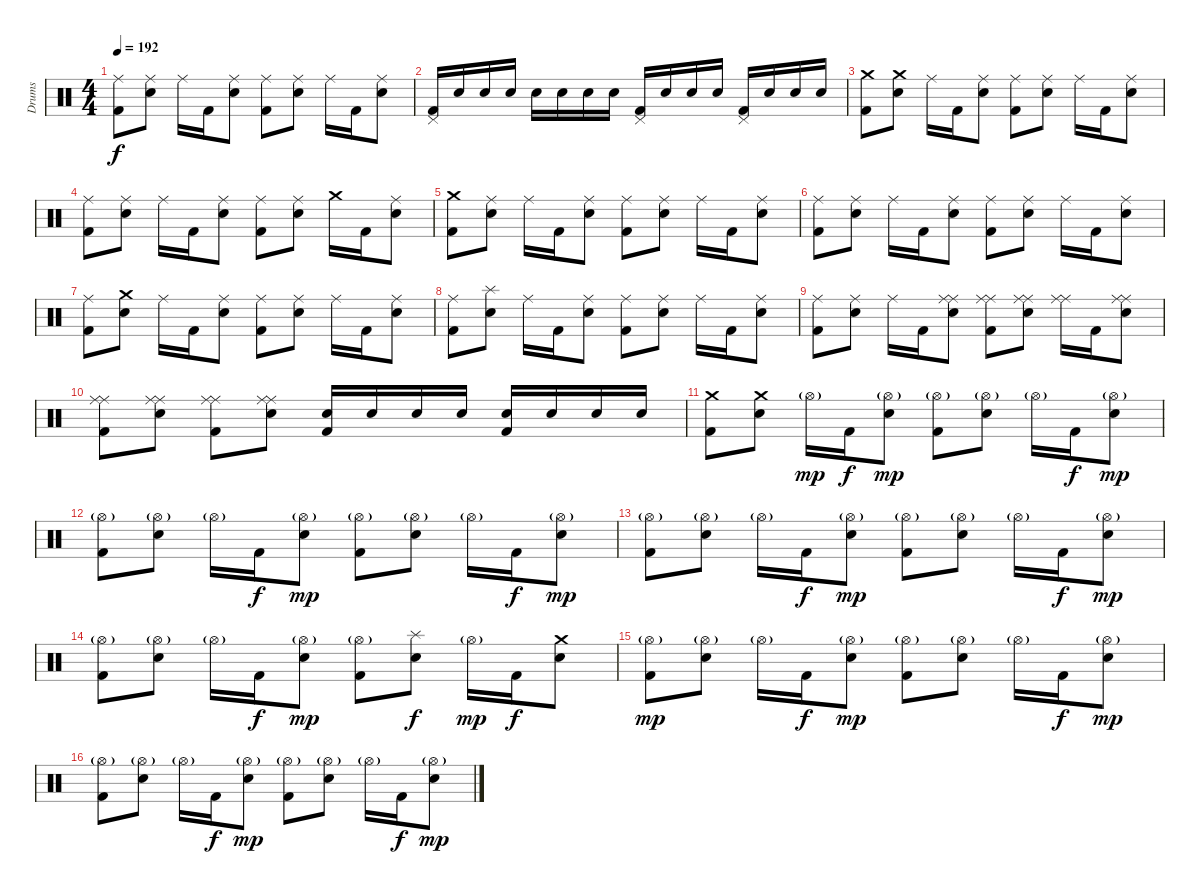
\track ("Drums" "Drums") {instrument percussion}
\staff {score}
\articulation defaults
\ts (4 4)
\tempo 192
\clef neutral
\ks c
("Ride (middle)" "Kick (hit) 2").8{dy f} ("Ride (middle)" "Electric Snare (hit)").8 "Ride (middle)".16 "Kick (hit) 2".16 ("Ride (middle)" "Electric Snare (hit)").8 ("Ride (middle)" "Kick (hit) 2").8 ("Ride (middle)" "Electric Snare (hit)").8 "Ride (middle)".16 "Kick (hit) 2".16 ("Ride (middle)" "Electric Snare (hit)").8 |
("Pedal Hi-Hat (hit)" "Kick (hit) 2").16 "Electric Snare (hit)".16 "Electric Snare (hit)".16 "Electric Snare (hit)".16 "Electric Snare (hit)".16 "Electric Snare (hit)".16 "Electric Snare (hit)".16 "Electric Snare (hit)".16 ("Pedal Hi-Hat (hit)" "Kick (hit) 2").16 "Electric Snare (hit)".16 "Electric Snare (hit)".16 "Electric Snare (hit)".16 ("Pedal Hi-Hat (hit)" "Kick (hit) 2").16 "Electric Snare (hit)".16 "Electric Snare (hit)".16 "Electric Snare (hit)".16 |
("Crash medium (hit)" "Kick (hit) 2").8 ("Crash medium (hit)" "Electric Snare (hit)").8 "Ride (middle)".16 "Kick (hit) 2".16 ("Ride (middle)" "Electric Snare (hit)").8 ("Ride (middle)" "Kick (hit) 2").8 ("Ride (middle)" "Electric Snare (hit)").8 "Ride (middle)".16 "Kick (hit) 2".16 ("Ride (middle)" "Electric Snare (hit)").8 |
("Ride (middle)" "Kick (hit) 2").8 ("Ride (middle)" "Electric Snare (hit)").8 "Ride (middle)".16 "Kick (hit) 2".16 ("Ride (middle)" "Electric Snare (hit)").8 ("Ride (middle)" "Kick (hit) 2").8 ("Ride (middle)" "Electric Snare (hit)").8 "Crash medium (hit)".16 "Kick (hit) 2".16 ("Ride (middle)" "Electric Snare (hit)").8 |
("Crash medium (hit)" "Kick (hit) 2").8 ("Ride (middle)" "Electric Snare (hit)").8 "Ride (middle)".16 "Kick (hit) 2".16 ("Ride (middle)" "Electric Snare (hit)").8 ("Ride (middle)" "Kick (hit) 2").8 ("Ride (middle)" "Electric Snare (hit)").8 "Ride (middle)".16 "Kick (hit) 2".16 ("Ride (middle)" "Electric Snare (hit)").8 |
("Ride (middle)" "Kick (hit) 2").8 ("Ride (middle)" "Electric Snare (hit)").8 "Ride (middle)".16 "Kick (hit) 2".16 ("Ride (middle)" "Electric Snare (hit)").8 ("Ride (middle)" "Kick (hit) 2").8 ("Ride (middle)" "Electric Snare (hit)").8 "Ride (middle)".16 "Kick (hit) 2".16 ("Ride (middle)" "Electric Snare (hit)").8 |
("Ride (middle)" "Kick (hit) 2").8 ("Crash medium (hit)" "Electric Snare (hit)").8 "Ride (middle)".16 "Kick (hit) 2".16 ("Ride (middle)" "Electric Snare (hit)").8 ("Ride (middle)" "Kick (hit) 2").8 ("Ride (middle)" "Electric Snare (hit)").8 "Ride (middle)".16 "Kick (hit) 2".16 ("Ride (middle)" "Electric Snare (hit)").8 |
("Ride (middle)" "Kick (hit) 2").8 ("Splash (hit)" "Electric Snare (hit)").8 "Ride (middle)".16 "Kick (hit) 2".16 ("Ride (middle)" "Electric Snare (hit)").8 ("Ride (middle)" "Kick (hit) 2").8 ("Ride (middle)" "Electric Snare (hit)").8 "Ride (middle)".16 "Kick (hit) 2".16 ("Ride (middle)" "Electric Snare (hit)").8 |
("Ride (middle)" "Kick (hit) 2").8 ("Ride (middle)" "Electric Snare (hit)").8 "Ride (middle)".16 "Kick (hit) 2".16 ("Ride (middle)" "Ride (middle)" "Electric Snare (hit)").8 ("Ride (middle)" "Ride (middle)" "Kick (hit) 2").8 ("Ride (middle)" "Ride (middle)" "Electric Snare (hit)").8 ("Ride (middle)" "Ride (middle)").16 "Kick (hit) 2".16 ("Ride (middle)" "Ride (middle)" "Electric Snare (hit)").8 |
("Ride (middle)" "Ride (middle)" "Kick (hit) 2").8 ("Ride (middle)" "Ride (middle)" "Electric Snare (hit)").8 ("Ride (middle)" "Ride (middle)" "Kick (hit) 2").8 ("Ride (middle)" "Ride (middle)" "Electric Snare (hit)").8 ("Electric Snare (hit)" "Kick (hit) 2").16 "Electric Snare (hit)".16 "Electric Snare (hit)".16 "Electric Snare (hit)".16 ("Electric Snare (hit)" "Kick (hit) 2").16 "Electric Snare (hit)".16 "Electric Snare (hit)".16 "Electric Snare (hit)".16 |
("Crash medium (hit)" "Kick (hit) 2").8 ("Crash medium (hit)" "Electric Snare (hit)").8 "Hi-Hat (open)"{g}.16{dy mp} "Kick (hit) 2".16{dy f} ("Hi-Hat (open)"{g} "Electric Snare (hit)").8{dy mp} ("Hi-Hat (open)"{g} "Kick (hit) 2").8 ("Hi-Hat (open)"{g} "Electric Snare (hit)").8 "Hi-Hat (open)"{g}.16 "Kick (hit) 2".16{dy f} ("Hi-Hat (open)"{g} "Electric Snare (hit)").8{dy mp} |
("Hi-Hat (open)"{g} "Kick (hit) 2").8 ("Hi-Hat (open)"{g} "Electric Snare (hit)").8 "Hi-Hat (open)"{g}.16 "Kick (hit) 2".16{dy f} ("Hi-Hat (open)"{g} "Electric Snare (hit)").8{dy mp} ("Hi-Hat (open)"{g} "Kick (hit) 2").8 ("Hi-Hat (open)"{g} "Electric Snare (hit)").8 "Hi-Hat (open)"{g}.16 "Kick (hit) 2".16{dy f} ("Hi-Hat (open)"{g} "Electric Snare (hit)").8{dy mp} |
("Hi-Hat (open)"{g} "Kick (hit) 2").8 ("Hi-Hat (open)"{g} "Electric Snare (hit)").8 "Hi-Hat (open)"{g}.16 "Kick (hit) 2".16{dy f} ("Hi-Hat (open)"{g} "Electric Snare (hit)").8{dy mp} ("Hi-Hat (open)"{g} "Kick (hit) 2").8 ("Hi-Hat (open)"{g} "Electric Snare (hit)").8 "Hi-Hat (open)"{g}.16 "Kick (hit) 2".16{dy f} ("Hi-Hat (open)"{g} "Electric Snare (hit)").8{dy mp} |
("Hi-Hat (open)"{g} "Kick (hit) 2").8 ("Hi-Hat (open)"{g} "Electric Snare (hit)").8 "Hi-Hat (open)"{g}.16 "Kick (hit) 2".16{dy f} ("Hi-Hat (open)"{g} "Electric Snare (hit)").8{dy mp} ("Hi-Hat (open)"{g} "Kick (hit) 2").8 ("Splash (hit)" "Electric Snare (hit)").8{dy f} "Hi-Hat (open)"{g}.16{dy mp} "Kick (hit) 2".16{dy f} ("Crash medium (hit)" "Electric Snare (hit)").8 |
("Hi-Hat (open)"{g} "Kick (hit) 2").8{dy mp} ("Hi-Hat (open)"{g} "Electric Snare (hit)").8 "Hi-Hat (open)"{g}.16 "Kick (hit) 2".16{dy f} ("Hi-Hat (open)"{g} "Electric Snare (hit)").8{dy mp} ("Hi-Hat (open)"{g} "Kick (hit) 2").8 ("Hi-Hat (open)"{g} "Electric Snare (hit)").8 "Hi-Hat (open)"{g}.16 "Kick (hit) 2".16{dy f} ("Hi-Hat (open)"{g} "Electric Snare (hit)").8{dy mp} |
("Hi-Hat (open)"{g} "Kick (hit) 2").8 ("Hi-Hat (open)"{g} "Electric Snare (hit)").8 "Hi-Hat (open)"{g}.16 "Kick (hit) 2".16{dy f} ("Hi-Hat (open)"{g} "Electric Snare (hit)").8{dy mp} ("Hi-Hat (open)"{g} "Kick (hit) 2").8 ("Hi-Hat (open)"{g} "Electric Snare (hit)").8 "Hi-Hat (open)"{g}.16 "Kick (hit) 2".16{dy f} ("Hi-Hat (open)"{g} "Electric Snare (hit)").8{dy mp}
